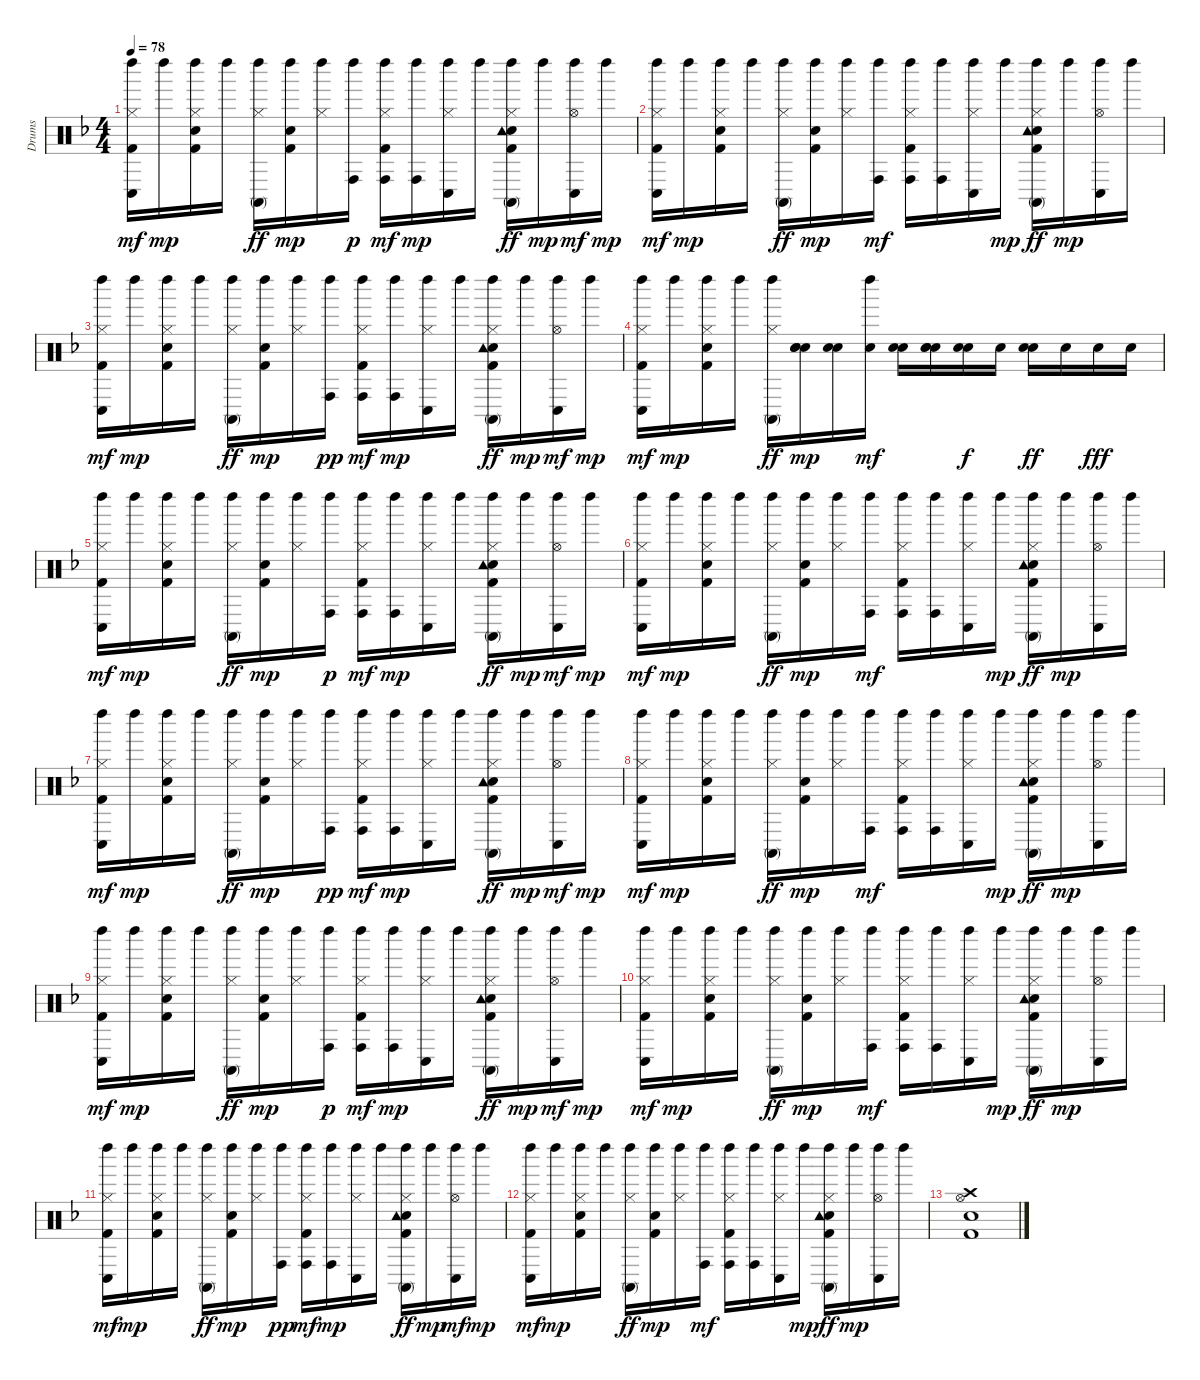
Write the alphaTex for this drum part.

\track ("Drums" "Drums") {instrument percussion}
\staff {score}
\articulation defaults
\ts (4 4)
\tempo 78
\clef neutral
\ks f
("Kick (hit) 2" "Hi-Hat (closed)" "Left Maraca (hit)" "Conga low (hit)").16{dy mf} "Left Maraca (hit)".16{dy mp} ("Kick (hit) 2" "Snare (hit) 2" "Hi-Hat (closed)" "Left Maraca (hit)").16 "Left Maraca (hit)".16 ("Hi-Hat (closed)" "Left Maraca (hit)" "Conga high (mute)").16{dy ff} ("Kick (hit) 2" "Snare (hit) 2" "Left Maraca (hit)").16{dy mp} ("Hi-Hat (closed)" "Left Maraca (hit)").16 ("Left Maraca (hit)" "Conga high (hit)").16{dy p} ("Kick (hit) 2" "Hi-Hat (closed)" "Left Maraca (hit)" "Conga high (hit)").16{dy mf} ("Left Maraca (hit)" "Conga high (hit)").16{dy mp} ("Hi-Hat (closed)" "Left Maraca (hit)" "Conga low (hit)").16 "Left Maraca (hit)".16 ("Kick (hit) 2" "Snare (hit) 2" "Hi-Hat (closed)" "Left Maraca (hit)" "Conga high (mute)" "Tambourine (hit)").16{dy ff} "Left Maraca (hit)".16{dy mp} ("Hi-Hat (open)" "Left Maraca (hit)" "Conga low (hit)").16{dy mf} "Left Maraca (hit)".16{dy mp} |
("Kick (hit) 2" "Hi-Hat (closed)" "Left Maraca (hit)" "Conga low (hit)").16{dy mf} "Left Maraca (hit)".16{dy mp} ("Kick (hit) 2" "Snare (hit) 2" "Hi-Hat (closed)" "Left Maraca (hit)").16 "Left Maraca (hit)".16 ("Hi-Hat (closed)" "Left Maraca (hit)" "Conga high (mute)").16{dy ff} ("Kick (hit) 2" "Snare (hit) 2" "Left Maraca (hit)").16{dy mp} ("Hi-Hat (closed)" "Left Maraca (hit)").16 ("Left Maraca (hit)" "Conga high (hit)").16{dy mf} ("Kick (hit) 2" "Hi-Hat (closed)" "Left Maraca (hit)" "Conga high (hit)").16 ("Left Maraca (hit)" "Conga high (hit)").16 ("Hi-Hat (closed)" "Left Maraca (hit)" "Conga low (hit)").16 "Left Maraca (hit)".16{dy mp} ("Kick (hit) 2" "Snare (hit) 2" "Hi-Hat (closed)" "Left Maraca (hit)" "Conga high (mute)" "Tambourine (hit)").16{dy ff} "Left Maraca (hit)".16{dy mp} ("Hi-Hat (open)" "Left Maraca (hit)" "Conga low (hit)").16 "Left Maraca (hit)".16 |
("Kick (hit) 2" "Hi-Hat (closed)" "Left Maraca (hit)" "Conga low (hit)").16{dy mf} "Left Maraca (hit)".16{dy mp} ("Kick (hit) 2" "Snare (hit) 2" "Hi-Hat (closed)" "Left Maraca (hit)").16 "Left Maraca (hit)".16 ("Hi-Hat (closed)" "Left Maraca (hit)" "Conga high (mute)").16{dy ff} ("Kick (hit) 2" "Snare (hit) 2" "Left Maraca (hit)").16{dy mp} ("Hi-Hat (closed)" "Left Maraca (hit)").16 ("Left Maraca (hit)" "Conga high (hit)").16{dy pp} ("Kick (hit) 2" "Hi-Hat (closed)" "Left Maraca (hit)" "Conga high (hit)").16{dy mf} ("Left Maraca (hit)" "Conga high (hit)").16{dy mp} ("Hi-Hat (closed)" "Left Maraca (hit)" "Conga low (hit)").16 "Left Maraca (hit)".16 ("Kick (hit) 2" "Snare (hit) 2" "Hi-Hat (closed)" "Left Maraca (hit)" "Conga high (mute)" "Tambourine (hit)").16{dy ff} "Left Maraca (hit)".16{dy mp} ("Hi-Hat (open)" "Left Maraca (hit)" "Conga low (hit)").16{dy mf} "Left Maraca (hit)".16{dy mp} |
("Kick (hit) 2" "Hi-Hat (closed)" "Left Maraca (hit)" "Conga low (hit)").16{dy mf} "Left Maraca (hit)".16{dy mp} ("Kick (hit) 2" "Snare (hit) 2" "Hi-Hat (closed)" "Left Maraca (hit)").16 "Left Maraca (hit)".16 ("Hi-Hat (closed)" "Left Maraca (hit)" "Conga high (mute)").16{dy ff} ("Snare (hit) 2" "Snare (hit) 2" "Electric Snare (hit)").16{dy mp} ("Snare (hit) 2" "Snare (hit) 2").16 ("Left Maraca (hit)" "Snare (hit) 2").16{dy mf} ("Snare (hit) 2" "Electric Snare (hit)").16 ("Electric Snare (hit)" "Snare (hit) 2" "Snare (hit) 2").16 ("Snare (hit) 2" "Snare (hit) 2").16{dy f} "Snare (hit) 2".16 ("Snare (hit) 2" "Electric Snare (hit)").16{dy ff} "Snare (hit) 2".16 "Snare (hit) 2".16{dy fff} "Snare (hit) 2".16 |
("Kick (hit) 2" "Hi-Hat (closed)" "Left Maraca (hit)" "Conga low (hit)").16{dy mf} "Left Maraca (hit)".16{dy mp} ("Kick (hit) 2" "Snare (hit) 2" "Hi-Hat (closed)" "Left Maraca (hit)").16 "Left Maraca (hit)".16 ("Hi-Hat (closed)" "Left Maraca (hit)" "Conga high (mute)").16{dy ff} ("Kick (hit) 2" "Snare (hit) 2" "Left Maraca (hit)").16{dy mp} ("Hi-Hat (closed)" "Left Maraca (hit)").16 ("Left Maraca (hit)" "Conga high (hit)").16{dy p} ("Kick (hit) 2" "Hi-Hat (closed)" "Left Maraca (hit)" "Conga high (hit)").16{dy mf} ("Left Maraca (hit)" "Conga high (hit)").16{dy mp} ("Hi-Hat (closed)" "Left Maraca (hit)" "Conga low (hit)").16 "Left Maraca (hit)".16 ("Kick (hit) 2" "Snare (hit) 2" "Hi-Hat (closed)" "Left Maraca (hit)" "Conga high (mute)" "Tambourine (hit)").16{dy ff} "Left Maraca (hit)".16{dy mp} ("Hi-Hat (open)" "Left Maraca (hit)" "Conga low (hit)").16{dy mf} "Left Maraca (hit)".16{dy mp} |
("Kick (hit) 2" "Hi-Hat (closed)" "Left Maraca (hit)" "Conga low (hit)").16{dy mf} "Left Maraca (hit)".16{dy mp} ("Kick (hit) 2" "Snare (hit) 2" "Hi-Hat (closed)" "Left Maraca (hit)").16 "Left Maraca (hit)".16 ("Hi-Hat (closed)" "Left Maraca (hit)" "Conga high (mute)").16{dy ff} ("Kick (hit) 2" "Snare (hit) 2" "Left Maraca (hit)").16{dy mp} ("Hi-Hat (closed)" "Left Maraca (hit)").16 ("Left Maraca (hit)" "Conga high (hit)").16{dy mf} ("Kick (hit) 2" "Hi-Hat (closed)" "Left Maraca (hit)" "Conga high (hit)").16 ("Left Maraca (hit)" "Conga high (hit)").16 ("Hi-Hat (closed)" "Left Maraca (hit)" "Conga low (hit)").16 "Left Maraca (hit)".16{dy mp} ("Kick (hit) 2" "Snare (hit) 2" "Hi-Hat (closed)" "Left Maraca (hit)" "Conga high (mute)" "Tambourine (hit)").16{dy ff} "Left Maraca (hit)".16{dy mp} ("Hi-Hat (open)" "Left Maraca (hit)" "Conga low (hit)").16 "Left Maraca (hit)".16 |
("Kick (hit) 2" "Hi-Hat (closed)" "Left Maraca (hit)" "Conga low (hit)").16{dy mf} "Left Maraca (hit)".16{dy mp} ("Kick (hit) 2" "Snare (hit) 2" "Hi-Hat (closed)" "Left Maraca (hit)").16 "Left Maraca (hit)".16 ("Hi-Hat (closed)" "Left Maraca (hit)" "Conga high (mute)").16{dy ff} ("Kick (hit) 2" "Snare (hit) 2" "Left Maraca (hit)").16{dy mp} ("Hi-Hat (closed)" "Left Maraca (hit)").16 ("Left Maraca (hit)" "Conga high (hit)").16{dy pp} ("Kick (hit) 2" "Hi-Hat (closed)" "Left Maraca (hit)" "Conga high (hit)").16{dy mf} ("Left Maraca (hit)" "Conga high (hit)").16{dy mp} ("Hi-Hat (closed)" "Left Maraca (hit)" "Conga low (hit)").16 "Left Maraca (hit)".16 ("Kick (hit) 2" "Snare (hit) 2" "Hi-Hat (closed)" "Left Maraca (hit)" "Conga high (mute)" "Tambourine (hit)").16{dy ff} "Left Maraca (hit)".16{dy mp} ("Hi-Hat (open)" "Left Maraca (hit)" "Conga low (hit)").16{dy mf} "Left Maraca (hit)".16{dy mp} |
("Kick (hit) 2" "Hi-Hat (closed)" "Left Maraca (hit)" "Conga low (hit)").16{dy mf} "Left Maraca (hit)".16{dy mp} ("Kick (hit) 2" "Snare (hit) 2" "Hi-Hat (closed)" "Left Maraca (hit)").16 "Left Maraca (hit)".16 ("Hi-Hat (closed)" "Left Maraca (hit)" "Conga high (mute)").16{dy ff} ("Kick (hit) 2" "Snare (hit) 2" "Left Maraca (hit)").16{dy mp} ("Hi-Hat (closed)" "Left Maraca (hit)").16 ("Left Maraca (hit)" "Conga high (hit)").16{dy mf} ("Kick (hit) 2" "Hi-Hat (closed)" "Left Maraca (hit)" "Conga high (hit)").16 ("Left Maraca (hit)" "Conga high (hit)").16 ("Hi-Hat (closed)" "Left Maraca (hit)" "Conga low (hit)").16 "Left Maraca (hit)".16{dy mp} ("Kick (hit) 2" "Snare (hit) 2" "Hi-Hat (closed)" "Left Maraca (hit)" "Conga high (mute)" "Tambourine (hit)").16{dy ff} "Left Maraca (hit)".16{dy mp} ("Hi-Hat (open)" "Left Maraca (hit)" "Conga low (hit)").16 "Left Maraca (hit)".16 |
("Kick (hit) 2" "Hi-Hat (closed)" "Left Maraca (hit)" "Conga low (hit)").16{dy mf} "Left Maraca (hit)".16{dy mp} ("Kick (hit) 2" "Snare (hit) 2" "Hi-Hat (closed)" "Left Maraca (hit)").16 "Left Maraca (hit)".16 ("Hi-Hat (closed)" "Left Maraca (hit)" "Conga high (mute)").16{dy ff} ("Kick (hit) 2" "Snare (hit) 2" "Left Maraca (hit)").16{dy mp} ("Hi-Hat (closed)" "Left Maraca (hit)").16 ("Left Maraca (hit)" "Conga high (hit)").16{dy p} ("Kick (hit) 2" "Hi-Hat (closed)" "Left Maraca (hit)" "Conga high (hit)").16{dy mf} ("Left Maraca (hit)" "Conga high (hit)").16{dy mp} ("Hi-Hat (closed)" "Left Maraca (hit)" "Conga low (hit)").16 "Left Maraca (hit)".16 ("Kick (hit) 2" "Snare (hit) 2" "Hi-Hat (closed)" "Left Maraca (hit)" "Conga high (mute)" "Tambourine (hit)").16{dy ff} "Left Maraca (hit)".16{dy mp} ("Hi-Hat (open)" "Left Maraca (hit)" "Conga low (hit)").16{dy mf} "Left Maraca (hit)".16{dy mp} |
("Kick (hit) 2" "Hi-Hat (closed)" "Left Maraca (hit)" "Conga low (hit)").16{dy mf} "Left Maraca (hit)".16{dy mp} ("Kick (hit) 2" "Snare (hit) 2" "Hi-Hat (closed)" "Left Maraca (hit)").16 "Left Maraca (hit)".16 ("Hi-Hat (closed)" "Left Maraca (hit)" "Conga high (mute)").16{dy ff} ("Kick (hit) 2" "Snare (hit) 2" "Left Maraca (hit)").16{dy mp} ("Hi-Hat (closed)" "Left Maraca (hit)").16 ("Left Maraca (hit)" "Conga high (hit)").16{dy mf} ("Kick (hit) 2" "Hi-Hat (closed)" "Left Maraca (hit)" "Conga high (hit)").16 ("Left Maraca (hit)" "Conga high (hit)").16 ("Hi-Hat (closed)" "Left Maraca (hit)" "Conga low (hit)").16 "Left Maraca (hit)".16{dy mp} ("Kick (hit) 2" "Snare (hit) 2" "Hi-Hat (closed)" "Left Maraca (hit)" "Conga high (mute)" "Tambourine (hit)").16{dy ff} "Left Maraca (hit)".16{dy mp} ("Hi-Hat (open)" "Left Maraca (hit)" "Conga low (hit)").16 "Left Maraca (hit)".16 |
("Kick (hit) 2" "Hi-Hat (closed)" "Left Maraca (hit)" "Conga low (hit)").16{dy mf} "Left Maraca (hit)".16{dy mp} ("Kick (hit) 2" "Snare (hit) 2" "Hi-Hat (closed)" "Left Maraca (hit)").16 "Left Maraca (hit)".16 ("Hi-Hat (closed)" "Left Maraca (hit)" "Conga high (mute)").16{dy ff} ("Kick (hit) 2" "Snare (hit) 2" "Left Maraca (hit)").16{dy mp} ("Hi-Hat (closed)" "Left Maraca (hit)").16 ("Left Maraca (hit)" "Conga high (hit)").16{dy pp} ("Kick (hit) 2" "Hi-Hat (closed)" "Left Maraca (hit)" "Conga high (hit)").16{dy mf} ("Left Maraca (hit)" "Conga high (hit)").16{dy mp} ("Hi-Hat (closed)" "Left Maraca (hit)" "Conga low (hit)").16 "Left Maraca (hit)".16 ("Kick (hit) 2" "Snare (hit) 2" "Hi-Hat (closed)" "Left Maraca (hit)" "Conga high (mute)" "Tambourine (hit)").16{dy ff} "Left Maraca (hit)".16{dy mp} ("Hi-Hat (open)" "Left Maraca (hit)" "Conga low (hit)").16{dy mf} "Left Maraca (hit)".16{dy mp} |
("Kick (hit) 2" "Hi-Hat (closed)" "Left Maraca (hit)" "Conga low (hit)").16{dy mf} "Left Maraca (hit)".16{dy mp} ("Kick (hit) 2" "Snare (hit) 2" "Hi-Hat (closed)" "Left Maraca (hit)").16 "Left Maraca (hit)".16 ("Hi-Hat (closed)" "Left Maraca (hit)" "Conga high (mute)").16{dy ff} ("Kick (hit) 2" "Snare (hit) 2" "Left Maraca (hit)").16{dy mp} ("Hi-Hat (closed)" "Left Maraca (hit)").16 ("Left Maraca (hit)" "Conga high (hit)").16{dy mf} ("Kick (hit) 2" "Hi-Hat (closed)" "Left Maraca (hit)" "Conga high (hit)").16 ("Left Maraca (hit)" "Conga high (hit)").16 ("Hi-Hat (closed)" "Left Maraca (hit)" "Conga low (hit)").16 "Left Maraca (hit)".16{dy mp} ("Kick (hit) 2" "Snare (hit) 2" "Hi-Hat (closed)" "Left Maraca (hit)" "Conga high (mute)" "Tambourine (hit)").16{dy ff} "Left Maraca (hit)".16{dy mp} ("Hi-Hat (open)" "Left Maraca (hit)" "Conga low (hit)").16 "Left Maraca (hit)".16 |
("Kick (hit) 2" "Snare (hit) 2" "Hi-Hat (open)" "Crash high (hit)").1
